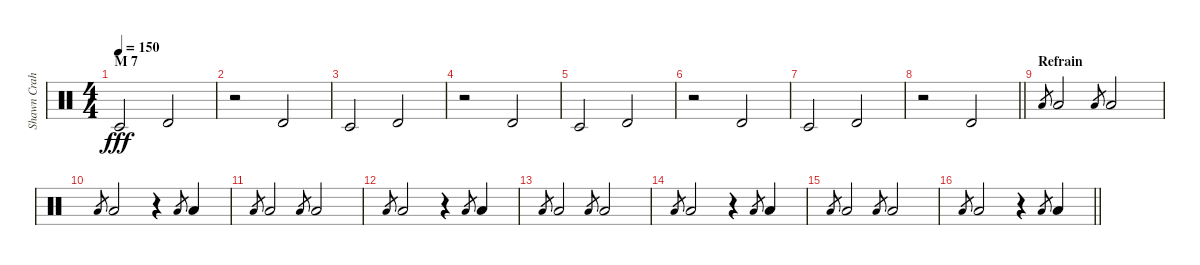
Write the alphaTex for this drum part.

\track ("Shawn Crahan" "Shawn Crah") {instrument percussion}
\staff {score}
\articulation defaults
\ts (4 4)
\section ("" "M 7")
\tempo 150
\clef neutral
\ks c "Timbale low (hit)".2{dy fff} "Timbale high (hit)".2
|
r.2 "Timbale high (hit)".2 |
"Timbale low (hit)".2 "Timbale high (hit)".2 |
r.2 "Timbale high (hit)".2 |
"Timbale low (hit)".2 "Timbale high (hit)".2 |
r.2 "Timbale high (hit)".2 |
"Timbale low (hit)".2 "Timbale high (hit)".2 |
\barLineRight lightlight
r.2 "Timbale high (hit)".2 |
\section ("" "Refrain")
"Low Floor Tom (hit)".8{gr} "Low Floor Tom (hit)".2 "Low Floor Tom (hit)".8{gr} "Low Floor Tom (hit)".2 |
"Low Floor Tom (hit)".8{gr} "Low Floor Tom (hit)".2 r.4 "Low Floor Tom (hit)".8{gr} "Low Floor Tom (hit)".4 |
"Low Floor Tom (hit)".8{gr} "Low Floor Tom (hit)".2 "Low Floor Tom (hit)".8{gr} "Low Floor Tom (hit)".2 |
"Low Floor Tom (hit)".8{gr} "Low Floor Tom (hit)".2 r.4 "Low Floor Tom (hit)".8{gr} "Low Floor Tom (hit)".4 |
"Low Floor Tom (hit)".8{gr} "Low Floor Tom (hit)".2 "Low Floor Tom (hit)".8{gr} "Low Floor Tom (hit)".2 |
"Low Floor Tom (hit)".8{gr} "Low Floor Tom (hit)".2 r.4 "Low Floor Tom (hit)".8{gr} "Low Floor Tom (hit)".4 |
"Low Floor Tom (hit)".8{gr} "Low Floor Tom (hit)".2 "Low Floor Tom (hit)".8{gr} "Low Floor Tom (hit)".2 |
\barLineRight lightlight "Low Floor Tom (hit)".8{gr} "Low Floor Tom (hit)".2
r.4 "Low Floor Tom (hit)".8{gr} "Low Floor Tom (hit)".4
